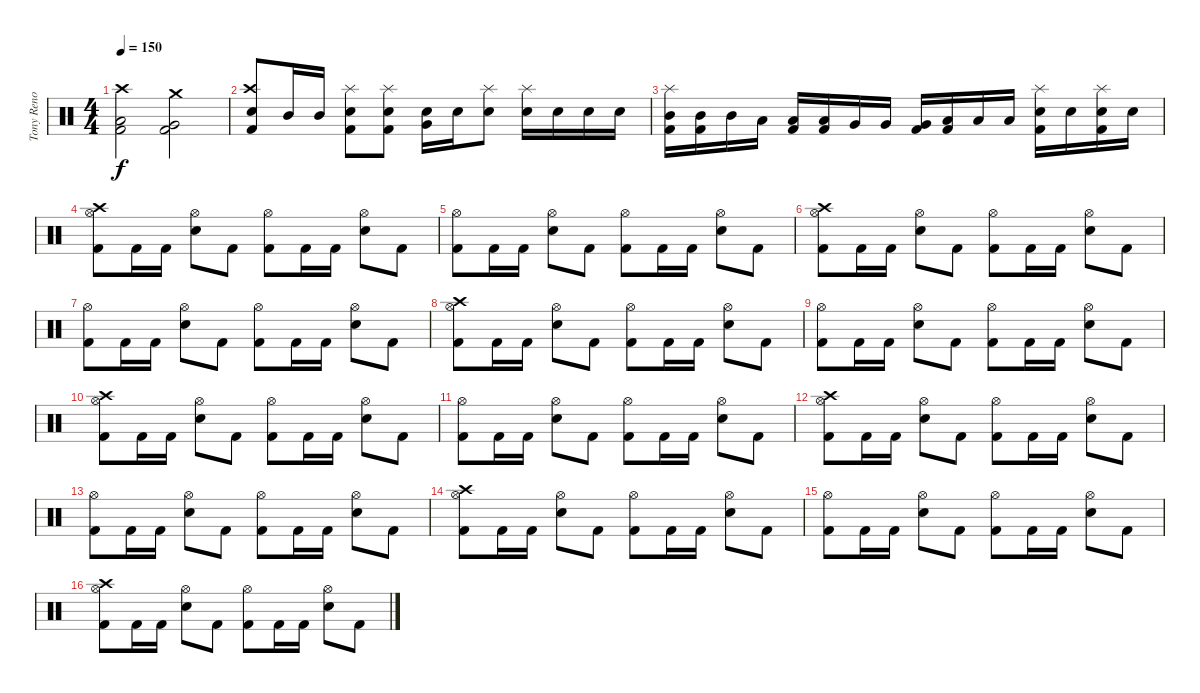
\track ("Tony Reno" "Tony Reno") {instrument percussion}
\staff {score}
\articulation defaults
\ts (4 4)
\tempo 150
\clef neutral
\ks c
("Kick (hit) 2" "Low Floor Tom (hit)" "Crash high (hit)").2{dy f} ("Kick (hit) 2" "Very Low Tom (hit)" "Crash medium (hit)").2 |
("Kick (hit) 2" "Crash high (hit)" "Snare (hit) 2").8 "Mid Tom (hit)".16 "Mid Tom (hit)".16 ("Kick (hit) 2" "Snare (hit) 2" "Splash (hit)").8 ("Kick (hit) 2" "Snare (hit) 2" "Splash (hit)").8 ("Snare (hit) 2" "Very Low Tom (hit)").16 "Snare (hit) 2".16 ("Snare (hit) 2" "Splash (hit)").8 ("Snare (hit) 2" "Splash (hit)").16 "Snare (hit) 2".16 "Snare (hit) 2".16 "Snare (hit) 2".16 |
("Mid Tom (hit)" "Splash (hit)" "Kick (hit) 2").16 ("Mid Tom (hit)" "Kick (hit) 2").16 "Mid Tom (hit)".16 "Low Tom (hit)".16 ("Low Tom (hit)" "Kick (hit) 2").16 ("Low Tom (hit)" "Kick (hit) 2").16 "Very Low Tom (hit)".16 "Very Low Tom (hit)".16 ("Very Low Tom (hit)" "Kick (hit) 2").16 ("Low Floor Tom (hit)" "Kick (hit) 2").16 "Low Floor Tom (hit)".16 "Low Floor Tom (hit)".16 ("Snare (hit) 2" "Kick (hit) 2" "Splash (hit)").16 "Snare (hit) 2".16 ("Snare (hit) 2" "Kick (hit) 2" "Splash (hit)").16 "Snare (hit) 2".16 |
("Kick (hit) 2" "Hi-Hat (open)" "Crash high (hit)").8 "Kick (hit) 2".16 "Kick (hit) 2".16 ("Snare (hit) 2" "Hi-Hat (open)").8 "Kick (hit) 2".8 ("Kick (hit) 2" "Hi-Hat (open)").8 "Kick (hit) 2".16 "Kick (hit) 2".16 ("Snare (hit) 2" "Hi-Hat (open)").8 "Kick (hit) 2".8 |
("Kick (hit) 2" "Hi-Hat (open)").8 "Kick (hit) 2".16 "Kick (hit) 2".16 ("Snare (hit) 2" "Hi-Hat (open)").8 "Kick (hit) 2".8 ("Kick (hit) 2" "Hi-Hat (open)").8 "Kick (hit) 2".16 "Kick (hit) 2".16 ("Snare (hit) 2" "Hi-Hat (open)").8 "Kick (hit) 2".8 |
("Kick (hit) 2" "Hi-Hat (open)" "Crash high (hit)").8 "Kick (hit) 2".16 "Kick (hit) 2".16 ("Snare (hit) 2" "Hi-Hat (open)").8 "Kick (hit) 2".8 ("Kick (hit) 2" "Hi-Hat (open)").8 "Kick (hit) 2".16 "Kick (hit) 2".16 ("Snare (hit) 2" "Hi-Hat (open)").8 "Kick (hit) 2".8 |
("Kick (hit) 2" "Hi-Hat (open)").8 "Kick (hit) 2".16 "Kick (hit) 2".16 ("Snare (hit) 2" "Hi-Hat (open)").8 "Kick (hit) 2".8 ("Kick (hit) 2" "Hi-Hat (open)").8 "Kick (hit) 2".16 "Kick (hit) 2".16 ("Snare (hit) 2" "Hi-Hat (open)").8 "Kick (hit) 2".8 |
("Kick (hit) 2" "Hi-Hat (open)" "Crash high (hit)").8 "Kick (hit) 2".16 "Kick (hit) 2".16 ("Snare (hit) 2" "Hi-Hat (open)").8 "Kick (hit) 2".8 ("Kick (hit) 2" "Hi-Hat (open)").8 "Kick (hit) 2".16 "Kick (hit) 2".16 ("Snare (hit) 2" "Hi-Hat (open)").8 "Kick (hit) 2".8 |
("Kick (hit) 2" "Hi-Hat (open)").8 "Kick (hit) 2".16 "Kick (hit) 2".16 ("Snare (hit) 2" "Hi-Hat (open)").8 "Kick (hit) 2".8 ("Kick (hit) 2" "Hi-Hat (open)").8 "Kick (hit) 2".16 "Kick (hit) 2".16 ("Snare (hit) 2" "Hi-Hat (open)").8 "Kick (hit) 2".8 |
("Kick (hit) 2" "Hi-Hat (open)" "Crash high (hit)").8 "Kick (hit) 2".16 "Kick (hit) 2".16 ("Snare (hit) 2" "Hi-Hat (open)").8 "Kick (hit) 2".8 ("Kick (hit) 2" "Hi-Hat (open)").8 "Kick (hit) 2".16 "Kick (hit) 2".16 ("Snare (hit) 2" "Hi-Hat (open)").8 "Kick (hit) 2".8 |
("Kick (hit) 2" "Hi-Hat (open)").8 "Kick (hit) 2".16 "Kick (hit) 2".16 ("Snare (hit) 2" "Hi-Hat (open)").8 "Kick (hit) 2".8 ("Kick (hit) 2" "Hi-Hat (open)").8 "Kick (hit) 2".16 "Kick (hit) 2".16 ("Snare (hit) 2" "Hi-Hat (open)").8 "Kick (hit) 2".8 |
("Kick (hit) 2" "Hi-Hat (open)" "Crash high (hit)").8 "Kick (hit) 2".16 "Kick (hit) 2".16 ("Snare (hit) 2" "Hi-Hat (open)").8 "Kick (hit) 2".8 ("Kick (hit) 2" "Hi-Hat (open)").8 "Kick (hit) 2".16 "Kick (hit) 2".16 ("Snare (hit) 2" "Hi-Hat (open)").8 "Kick (hit) 2".8 |
("Kick (hit) 2" "Hi-Hat (open)").8 "Kick (hit) 2".16 "Kick (hit) 2".16 ("Snare (hit) 2" "Hi-Hat (open)").8 "Kick (hit) 2".8 ("Kick (hit) 2" "Hi-Hat (open)").8 "Kick (hit) 2".16 "Kick (hit) 2".16 ("Snare (hit) 2" "Hi-Hat (open)").8 "Kick (hit) 2".8 |
("Kick (hit) 2" "Hi-Hat (open)" "Crash high (hit)").8 "Kick (hit) 2".16 "Kick (hit) 2".16 ("Snare (hit) 2" "Hi-Hat (open)").8 "Kick (hit) 2".8 ("Kick (hit) 2" "Hi-Hat (open)").8 "Kick (hit) 2".16 "Kick (hit) 2".16 ("Snare (hit) 2" "Hi-Hat (open)").8 "Kick (hit) 2".8 |
("Kick (hit) 2" "Hi-Hat (open)").8 "Kick (hit) 2".16 "Kick (hit) 2".16 ("Snare (hit) 2" "Hi-Hat (open)").8 "Kick (hit) 2".8 ("Kick (hit) 2" "Hi-Hat (open)").8 "Kick (hit) 2".16 "Kick (hit) 2".16 ("Snare (hit) 2" "Hi-Hat (open)").8 "Kick (hit) 2".8 |
("Kick (hit) 2" "Hi-Hat (open)" "Crash high (hit)").8 "Kick (hit) 2".16 "Kick (hit) 2".16 ("Snare (hit) 2" "Hi-Hat (open)").8 "Kick (hit) 2".8 ("Kick (hit) 2" "Hi-Hat (open)").8 "Kick (hit) 2".16 "Kick (hit) 2".16 ("Snare (hit) 2" "Hi-Hat (open)").8 "Kick (hit) 2".8
